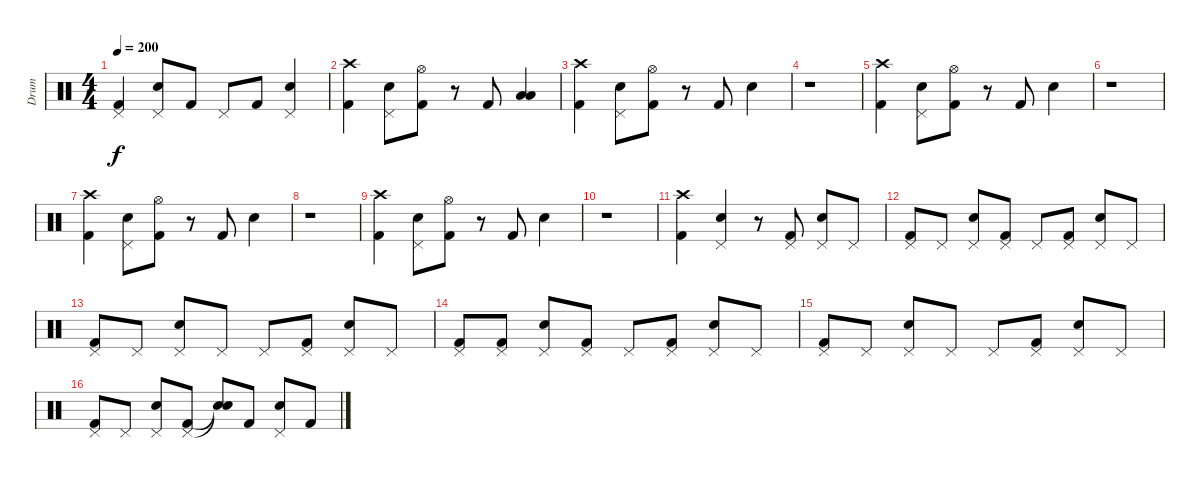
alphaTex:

\track ("Drum" "Drum") {instrument percussion}
\staff {score}
\articulation defaults
\ts (4 4)
\tempo 200
\clef neutral
\ks c
("Pedal Hi-Hat (hit)" "Kick (hit) 2").4{dy f} ("Pedal Hi-Hat (hit)" "Electric Snare (hit)").8 "Kick (hit) 2".8 "Pedal Hi-Hat (hit)".8 "Kick (hit) 2".8 ("Pedal Hi-Hat (hit)" "Electric Snare (hit)").4 |
("Crash high (hit)" "Kick (hit) 2").4 ("Pedal Hi-Hat (hit)" "Electric Snare (hit)").8 ("Hi-Hat (open)" "Kick (hit) 2").8 r.8 "Kick (hit) 2".8 ("Low Tom (hit)" "Low Floor Tom (hit)").4 |
("Crash high (hit)" "Kick (hit) 2").4 ("Pedal Hi-Hat (hit)" "Electric Snare (hit)").8 ("Hi-Hat (open)" "Kick (hit) 2").8 r.8 "Kick (hit) 2".8 "Electric Snare (hit)".4 |
r.1 |
("Crash high (hit)" "Kick (hit) 2").4 ("Pedal Hi-Hat (hit)" "Electric Snare (hit)").8 ("Hi-Hat (open)" "Kick (hit) 2").8 r.8 "Kick (hit) 2".8 "Electric Snare (hit)".4 |
r.1 |
("Crash high (hit)" "Kick (hit) 2").4 ("Pedal Hi-Hat (hit)" "Electric Snare (hit)").8 ("Hi-Hat (open)" "Kick (hit) 2").8 r.8 "Kick (hit) 2".8 "Electric Snare (hit)".4 |
r.1 |
("Crash high (hit)" "Kick (hit) 2").4 ("Pedal Hi-Hat (hit)" "Electric Snare (hit)").8 ("Hi-Hat (open)" "Kick (hit) 2").8 r.8 "Kick (hit) 2".8 "Electric Snare (hit)".4 |
r.1 |
("Crash high (hit)" "Kick (hit) 2").4 ("Pedal Hi-Hat (hit)" "Electric Snare (hit)").4 r.8 ("Pedal Hi-Hat (hit)" "Kick (hit) 2").8 ("Pedal Hi-Hat (hit)" "Electric Snare (hit)").8 "Pedal Hi-Hat (hit)".8 |
("Pedal Hi-Hat (hit)" "Kick (hit) 2").8 "Pedal Hi-Hat (hit)".8 ("Pedal Hi-Hat (hit)" "Electric Snare (hit)").8 ("Pedal Hi-Hat (hit)" "Kick (hit) 2").8 "Pedal Hi-Hat (hit)".8 ("Pedal Hi-Hat (hit)" "Kick (hit) 2").8 ("Pedal Hi-Hat (hit)" "Electric Snare (hit)").8 "Pedal Hi-Hat (hit)".8 |
("Pedal Hi-Hat (hit)" "Kick (hit) 2").8 "Pedal Hi-Hat (hit)".8 ("Pedal Hi-Hat (hit)" "Electric Snare (hit)").8 "Pedal Hi-Hat (hit)".8 "Pedal Hi-Hat (hit)".8 ("Pedal Hi-Hat (hit)" "Kick (hit) 2").8 ("Pedal Hi-Hat (hit)" "Electric Snare (hit)").8 "Pedal Hi-Hat (hit)".8 |
("Pedal Hi-Hat (hit)" "Kick (hit) 2").8 ("Pedal Hi-Hat (hit)" "Kick (hit) 2").8 ("Pedal Hi-Hat (hit)" "Electric Snare (hit)").8 ("Pedal Hi-Hat (hit)" "Kick (hit) 2").8 "Pedal Hi-Hat (hit)".8 ("Pedal Hi-Hat (hit)" "Kick (hit) 2").8 ("Pedal Hi-Hat (hit)" "Electric Snare (hit)").8 "Pedal Hi-Hat (hit)".8 |
("Pedal Hi-Hat (hit)" "Kick (hit) 2").8 "Pedal Hi-Hat (hit)".8 ("Pedal Hi-Hat (hit)" "Electric Snare (hit)").8 "Pedal Hi-Hat (hit)".8 "Pedal Hi-Hat (hit)".8 ("Pedal Hi-Hat (hit)" "Kick (hit) 2").8 ("Pedal Hi-Hat (hit)" "Electric Snare (hit)").8 "Pedal Hi-Hat (hit)".8 |
("Pedal Hi-Hat (hit)" "Kick (hit) 2").8 "Pedal Hi-Hat (hit)".8 ("Pedal Hi-Hat (hit)" "Electric Snare (hit)").8 ("Pedal Hi-Hat (hit)" "Kick (hit) 2").8 ("Snare (hit)"{t} "Snare (hit)"{t}).8 "Kick (hit) 2".8 ("Pedal Hi-Hat (hit)" "Electric Snare (hit)").8 "Kick (hit) 2".8
